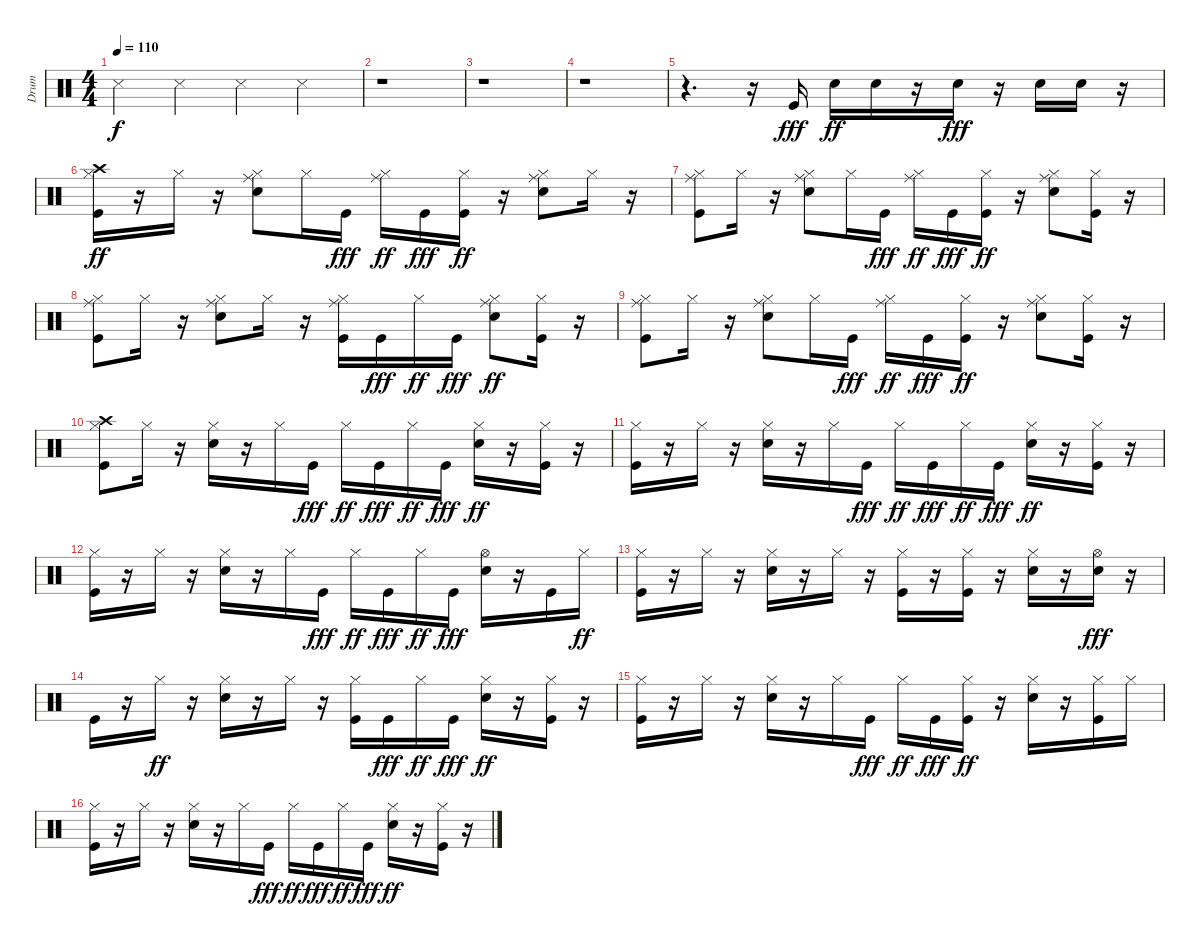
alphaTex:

\track ("Drum" "Drum") {instrument percussion}
\staff {score}
\articulation defaults
\ts (4 4)
\tempo 110
\clef neutral
\ks c "Snare (side stick) 3".4{dy f} "Snare (side stick) 3".4 "Snare (side stick) 3".4 "Snare (side stick) 3".4
|
r.1 |
r.1 |
r.1 |
r.4{d} r.16 "Kick (hit)".16{dy fff} "Electric Snare (hit)".16{dy ff} "Electric Snare (hit)".16 r.16 "Electric Snare (hit)".16{dy fff} r.16 "Electric Snare (hit)".16 "Electric Snare (hit)".16 r.16 |
("Crash high (hit)" "Kick (hit)" "Hi-Hat (closed)").16{dy ff} r.16 "Hi-Hat (closed)".16 r.16 ("Electric Snare (hit)" "Hi-Hat (closed)" "Ride (middle)").8 "Hi-Hat (closed)".16 "Kick (hit)".16{dy fff} ("Hi-Hat (closed)" "Ride (middle)").16{dy ff} "Kick (hit)".16{dy fff} ("Kick (hit)" "Hi-Hat (closed)").16{dy ff} r.16 ("Electric Snare (hit)" "Hi-Hat (closed)" "Ride (middle)").8 "Hi-Hat (closed)".16 r.16 |
("Kick (hit)" "Hi-Hat (closed)" "Ride (middle)").8 "Hi-Hat (closed)".16 r.16 ("Electric Snare (hit)" "Hi-Hat (closed)" "Ride (middle)").8 "Hi-Hat (closed)".16 "Kick (hit)".16{dy fff} ("Hi-Hat (closed)" "Ride (middle)").16{dy ff} "Kick (hit)".16{dy fff} ("Kick (hit)" "Hi-Hat (closed)").16{dy ff} r.16 ("Electric Snare (hit)" "Hi-Hat (closed)" "Ride (middle)").8 ("Kick (hit)" "Hi-Hat (closed)").16 r.16 |
("Kick (hit)" "Hi-Hat (closed)" "Ride (middle)").8 "Hi-Hat (closed)".16 r.16 ("Electric Snare (hit)" "Hi-Hat (closed)" "Ride (middle)").8 "Hi-Hat (closed)".16 r.16 ("Kick (hit)" "Hi-Hat (closed)" "Ride (middle)").16 "Kick (hit)".16{dy fff} "Hi-Hat (closed)".16{dy ff} "Kick (hit)".16{dy fff} ("Electric Snare (hit)" "Hi-Hat (closed)" "Ride (middle)").8{dy ff} ("Kick (hit)" "Hi-Hat (closed)").16 r.16 |
("Kick (hit)" "Hi-Hat (closed)" "Ride (middle)").8 "Hi-Hat (closed)".16 r.16 ("Electric Snare (hit)" "Hi-Hat (closed)" "Ride (middle)").8 "Hi-Hat (closed)".16 "Kick (hit)".16{dy fff} ("Hi-Hat (closed)" "Ride (middle)").16{dy ff} "Kick (hit)".16{dy fff} ("Kick (hit)" "Hi-Hat (closed)").16{dy ff} r.16 ("Electric Snare (hit)" "Hi-Hat (closed)" "Ride (middle)").8 ("Kick (hit)" "Hi-Hat (closed)").16 r.16 |
("Crash high (hit)" "Kick (hit)" "Hi-Hat (closed)").8 "Hi-Hat (closed)".16 r.16 ("Electric Snare (hit)" "Hi-Hat (closed)").16 r.16 "Hi-Hat (closed)".16 "Kick (hit)".16{dy fff} "Hi-Hat (closed)".16{dy ff} "Kick (hit)".16{dy fff} "Hi-Hat (closed)".16{dy ff} "Kick (hit)".16{dy fff} ("Electric Snare (hit)" "Hi-Hat (closed)").16{dy ff} r.16 ("Kick (hit)" "Hi-Hat (closed)").16 r.16 |
("Kick (hit)" "Hi-Hat (closed)").16 r.16 "Hi-Hat (closed)".16 r.16 ("Electric Snare (hit)" "Hi-Hat (closed)").16 r.16 "Hi-Hat (closed)".16 "Kick (hit)".16{dy fff} "Hi-Hat (closed)".16{dy ff} "Kick (hit)".16{dy fff} "Hi-Hat (closed)".16{dy ff} "Kick (hit)".16{dy fff} ("Electric Snare (hit)" "Hi-Hat (closed)").16{dy ff} r.16 ("Kick (hit)" "Hi-Hat (closed)").16 r.16 |
("Kick (hit)" "Hi-Hat (closed)").16 r.16 "Hi-Hat (closed)".16 r.16 ("Electric Snare (hit)" "Hi-Hat (closed)").16 r.16 "Hi-Hat (closed)".16 "Kick (hit)".16{dy fff} "Hi-Hat (closed)".16{dy ff} "Kick (hit)".16{dy fff} "Hi-Hat (closed)".16{dy ff} "Kick (hit)".16{dy fff} ("Hi-Hat (open)" "Electric Snare (hit)").16 r.16 "Kick (hit)".16 "Hi-Hat (closed)".16{dy ff} |
("Kick (hit)" "Hi-Hat (closed)").16 r.16 "Hi-Hat (closed)".16 r.16 ("Electric Snare (hit)" "Hi-Hat (closed)").16 r.16 "Hi-Hat (closed)".16 r.16 ("Kick (hit)" "Hi-Hat (closed)").16 r.16 ("Kick (hit)" "Hi-Hat (closed)").16 r.16 ("Electric Snare (hit)" "Hi-Hat (closed)").16 r.16 ("Hi-Hat (open)" "Electric Snare (hit)").16{dy fff} r.16 |
"Kick (hit)".16 r.16 "Hi-Hat (closed)".16{dy ff} r.16 ("Electric Snare (hit)" "Hi-Hat (closed)").16 r.16 "Hi-Hat (closed)".16 r.16 ("Kick (hit)" "Hi-Hat (closed)").16 "Kick (hit)".16{dy fff} "Hi-Hat (closed)".16{dy ff} "Kick (hit)".16{dy fff} ("Electric Snare (hit)" "Hi-Hat (closed)").16{dy ff} r.16 ("Kick (hit)" "Hi-Hat (closed)").16 r.16 |
("Kick (hit)" "Hi-Hat (closed)").16 r.16 "Hi-Hat (closed)".16 r.16 ("Electric Snare (hit)" "Hi-Hat (closed)").16 r.16 "Hi-Hat (closed)".16 "Kick (hit)".16{dy fff} "Hi-Hat (closed)".16{dy ff} "Kick (hit)".16{dy fff} ("Kick (hit)" "Hi-Hat (closed)").16{dy ff} r.16 ("Electric Snare (hit)" "Hi-Hat (closed)").16 r.16 ("Kick (hit)" "Hi-Hat (closed)").16 "Hi-Hat (closed)".16 |
("Kick (hit)" "Hi-Hat (closed)").16 r.16 "Hi-Hat (closed)".16 r.16 ("Electric Snare (hit)" "Hi-Hat (closed)").16 r.16 "Hi-Hat (closed)".16 "Kick (hit)".16{dy fff} "Hi-Hat (closed)".16{dy ff} "Kick (hit)".16{dy fff} "Hi-Hat (closed)".16{dy ff} "Kick (hit)".16{dy fff} ("Electric Snare (hit)" "Hi-Hat (closed)").16{dy ff} r.16 ("Kick (hit)" "Hi-Hat (closed)").16 r.16
